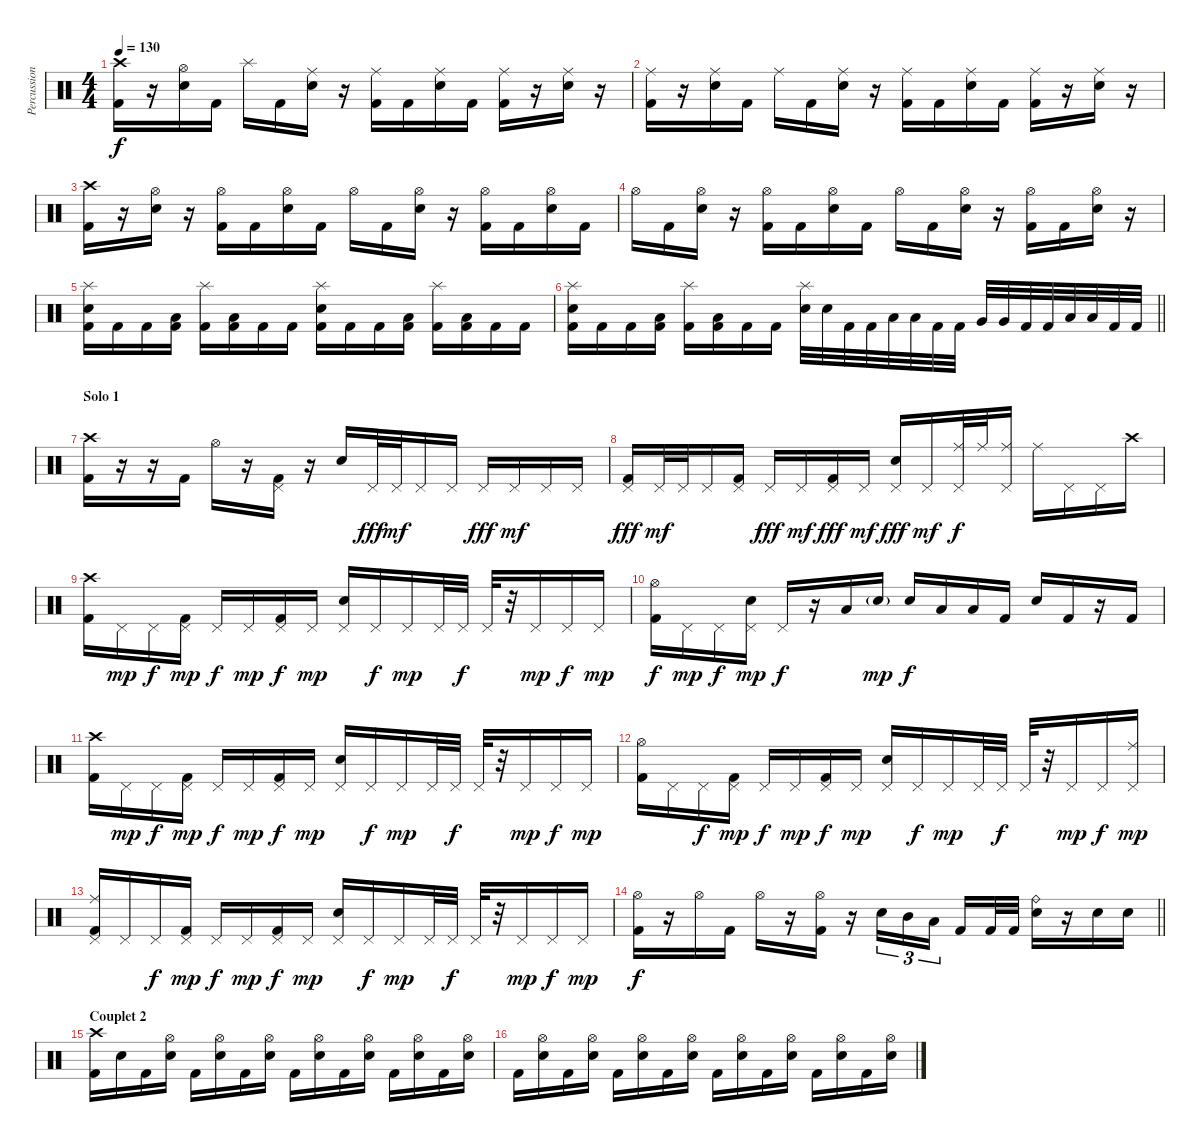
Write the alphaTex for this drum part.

\track ("Percussions" "Percussion") {instrument percussion}
\staff {score}
\articulation defaults
\ts (4 4)
\tempo 130
\clef neutral
\ks c
("Crash high (hit)" "Kick (hit) 2").16{dy f} r.16 ("Hi-Hat (open)" "Electric Snare (hit)").16 "Kick (hit) 2".16 "Splash (hit)".16 "Kick (hit) 2".16 ("Ride (middle)" "Electric Snare (hit)").16 r.16 ("Ride (middle)" "Kick (hit) 2").16 "Kick (hit) 2".16 ("Ride (middle)" "Electric Snare (hit)").16 "Kick (hit) 2".16 ("Ride (middle)" "Kick (hit) 2").16 r.16 ("Ride (middle)" "Electric Snare (hit)").16 r.16 |
("Ride (middle)" "Kick (hit) 2").16 r.16 ("Ride (middle)" "Electric Snare (hit)").16 "Kick (hit) 2".16 "Ride (middle)".16 "Kick (hit) 2".16 ("Ride (middle)" "Electric Snare (hit)").16 r.16 ("Ride (middle)" "Kick (hit) 2").16 "Kick (hit) 2".16 ("Ride (middle)" "Electric Snare (hit)").16 "Kick (hit) 2".16 ("Ride (middle)" "Kick (hit) 2").16 r.16 ("Ride (middle)" "Electric Snare (hit)").16 r.16 |
("Crash high (hit)" "Kick (hit) 2").16 r.16 ("Hi-Hat (open)" "Electric Snare (hit)").16 r.16 ("Hi-Hat (open)" "Kick (hit) 2").16 "Kick (hit) 2".16 ("Hi-Hat (open)" "Electric Snare (hit)").16 "Kick (hit) 2".16 "Hi-Hat (open)".16 "Kick (hit) 2".16 ("Hi-Hat (open)" "Electric Snare (hit)").16 r.16 ("Hi-Hat (open)" "Kick (hit) 2").16 "Kick (hit) 2".16 ("Hi-Hat (open)" "Electric Snare (hit)").16 "Kick (hit) 2".16 |
"Hi-Hat (open)".16 "Kick (hit) 2".16 ("Hi-Hat (open)" "Electric Snare (hit)").16 r.16 ("Hi-Hat (open)" "Kick (hit) 2").16 "Kick (hit) 2".16 ("Hi-Hat (open)" "Electric Snare (hit)").16 "Kick (hit) 2".16 "Hi-Hat (open)".16 "Kick (hit) 2".16 ("Hi-Hat (open)" "Electric Snare (hit)").16 r.16 ("Hi-Hat (open)" "Kick (hit) 2").16 "Kick (hit) 2".16 ("Hi-Hat (open)" "Electric Snare (hit)").16 r.16 |
("Splash (hit)" "Electric Snare (hit)" "Kick (hit) 2").16 "Kick (hit) 2".16 "Kick (hit) 2".16 ("Low Tom (hit)" "Kick (hit) 2").16 ("Splash (hit)" "Kick (hit) 2").16 ("Low Tom (hit)" "Kick (hit) 2").16 "Kick (hit) 2".16 "Kick (hit) 2".16 ("Splash (hit)" "Electric Snare (hit)" "Kick (hit) 2").16 "Kick (hit) 2".16 "Kick (hit) 2".16 ("Low Tom (hit)" "Kick (hit) 2").16 ("Splash (hit)" "Kick (hit) 2").16 ("Low Tom (hit)" "Kick (hit) 2").16 "Kick (hit) 2".16 "Kick (hit) 2".16 |
\barLineRight lightlight
("Splash (hit)" "Electric Snare (hit)" "Kick (hit) 2").16 "Kick (hit) 2".16 "Kick (hit) 2".16 ("Low Tom (hit)" "Kick (hit) 2").16 ("Splash (hit)" "Kick (hit) 2").16 ("Low Tom (hit)" "Kick (hit) 2").16 "Kick (hit) 2".16 "Kick (hit) 2".16 ("Splash (hit)" "Electric Snare (hit)").32 "Electric Snare (hit)".32 "Kick (hit) 2".32 "Kick (hit) 2".32 "Low Tom (hit)".32 "Low Tom (hit)".32 "Kick (hit) 2".32 "Kick (hit) 2".32 "Very Low Tom (hit)".32 "Very Low Tom (hit)".32 "Kick (hit) 2".32 "Kick (hit) 2".32 "Low Floor Tom (hit)".32 "Low Floor Tom (hit)".32 "Kick (hit) 2".32 "Kick (hit) 2".32 |
\section ("" "Solo 1")
("Crash high (hit)" "Kick (hit) 2").16 r.16 r.16 "Kick (hit) 2".16 "Hi-Hat (open)".16 r.16 ("Pedal Hi-Hat (hit)" "Kick (hit) 2").16 r.16 "Electric Snare (hit)".16 "Pedal Hi-Hat (hit)".32{dy fff} "Pedal Hi-Hat (hit)".32{dy mf} "Pedal Hi-Hat (hit)".16 "Pedal Hi-Hat (hit)".16 "Pedal Hi-Hat (hit)".16{dy fff} "Pedal Hi-Hat (hit)".16{dy mf} "Pedal Hi-Hat (hit)".16 "Pedal Hi-Hat (hit)".16 |
("Pedal Hi-Hat (hit)" "Kick (hit) 2").16{dy fff} "Pedal Hi-Hat (hit)".32{dy mf} "Pedal Hi-Hat (hit)".32 "Pedal Hi-Hat (hit)".16 ("Pedal Hi-Hat (hit)" "Kick (hit) 2").16 "Pedal Hi-Hat (hit)".16{dy fff} "Pedal Hi-Hat (hit)".16{dy mf} ("Pedal Hi-Hat (hit)" "Kick (hit) 2").16{dy fff} "Pedal Hi-Hat (hit)".16{dy mf} ("Pedal Hi-Hat (hit)" "Electric Snare (hit)").16{dy fff} "Pedal Hi-Hat (hit)".16{dy mf} ("Ride (middle)" "Pedal Hi-Hat (hit)").32{dy f} "Ride (middle)".32 ("Ride (middle)" "Pedal Hi-Hat (hit)").16 "Ride (middle)".16 "Pedal Hi-Hat (hit)".16 "Pedal Hi-Hat (hit)".16 "Crash high (hit)".16 |
("Crash high (hit)" "Kick (hit) 2").16 "Pedal Hi-Hat (hit)".16{dy mp} "Pedal Hi-Hat (hit)".16{dy f} ("Pedal Hi-Hat (hit)" "Kick (hit) 2").16{dy mp} "Pedal Hi-Hat (hit)".16{dy f} "Pedal Hi-Hat (hit)".16{dy mp} ("Pedal Hi-Hat (hit)" "Kick (hit) 2").16{dy f} "Pedal Hi-Hat (hit)".16{dy mp} ("Pedal Hi-Hat (hit)" "Electric Snare (hit)").16 "Pedal Hi-Hat (hit)".16{dy f} "Pedal Hi-Hat (hit)".16{dy mp} "Pedal Hi-Hat (hit)".32 "Pedal Hi-Hat (hit)".32{dy f} "Pedal Hi-Hat (hit)".32 r.32 "Pedal Hi-Hat (hit)".16{dy mp} "Pedal Hi-Hat (hit)".16{dy f} "Pedal Hi-Hat (hit)".16{dy mp} |
("Hi-Hat (open)" "Kick (hit) 2").16{dy f} "Pedal Hi-Hat (hit)".16{dy mp} "Pedal Hi-Hat (hit)".16{dy f} ("Pedal Hi-Hat (hit)" "Electric Snare (hit)").16{dy mp} "Pedal Hi-Hat (hit)".16{dy f} r.16 "Low Tom (hit)".16 "Electric Snare (hit)"{g}.16{dy mp} "Electric Snare (hit)".16{dy f} "Low Tom (hit)".16 "Low Floor Tom (hit)".16 "Kick (hit) 2".16 "Electric Snare (hit)".16 "Kick (hit) 2".16 r.16 "Kick (hit) 2".16 |
("Crash high (hit)" "Kick (hit) 2").16 "Pedal Hi-Hat (hit)".16{dy mp} "Pedal Hi-Hat (hit)".16{dy f} ("Pedal Hi-Hat (hit)" "Kick (hit) 2").16{dy mp} "Pedal Hi-Hat (hit)".16{dy f} "Pedal Hi-Hat (hit)".16{dy mp} ("Pedal Hi-Hat (hit)" "Kick (hit) 2").16{dy f} "Pedal Hi-Hat (hit)".16{dy mp} ("Pedal Hi-Hat (hit)" "Electric Snare (hit)").16 "Pedal Hi-Hat (hit)".16{dy f} "Pedal Hi-Hat (hit)".16{dy mp} "Pedal Hi-Hat (hit)".32 "Pedal Hi-Hat (hit)".32{dy f} "Pedal Hi-Hat (hit)".32 r.32 "Pedal Hi-Hat (hit)".16{dy mp} "Pedal Hi-Hat (hit)".16{dy f} "Pedal Hi-Hat (hit)".16{dy mp} |
("Hi-Hat (open)" "Kick (hit) 2").16 "Pedal Hi-Hat (hit)".16 "Pedal Hi-Hat (hit)".16{dy f} ("Pedal Hi-Hat (hit)" "Kick (hit) 2").16{dy mp} "Pedal Hi-Hat (hit)".16{dy f} "Pedal Hi-Hat (hit)".16{dy mp} ("Pedal Hi-Hat (hit)" "Kick (hit) 2").16{dy f} "Pedal Hi-Hat (hit)".16{dy mp} ("Pedal Hi-Hat (hit)" "Electric Snare (hit)").16 "Pedal Hi-Hat (hit)".16{dy f} "Pedal Hi-Hat (hit)".16{dy mp} "Pedal Hi-Hat (hit)".32 "Pedal Hi-Hat (hit)".32{dy f} "Pedal Hi-Hat (hit)".32 r.32 "Pedal Hi-Hat (hit)".16{dy mp} "Pedal Hi-Hat (hit)".16{dy f} ("Ride (middle)" "Pedal Hi-Hat (hit)").16{dy mp} |
("Ride (middle)" "Pedal Hi-Hat (hit)" "Kick (hit) 2").16 "Pedal Hi-Hat (hit)".16 "Pedal Hi-Hat (hit)".16{dy f} ("Pedal Hi-Hat (hit)" "Kick (hit) 2").16{dy mp} "Pedal Hi-Hat (hit)".16{dy f} "Pedal Hi-Hat (hit)".16{dy mp} ("Pedal Hi-Hat (hit)" "Kick (hit) 2").16{dy f} "Pedal Hi-Hat (hit)".16{dy mp} ("Pedal Hi-Hat (hit)" "Electric Snare (hit)").16 "Pedal Hi-Hat (hit)".16{dy f} "Pedal Hi-Hat (hit)".16{dy mp} "Pedal Hi-Hat (hit)".32 "Pedal Hi-Hat (hit)".32{dy f} "Pedal Hi-Hat (hit)".32 r.32 "Pedal Hi-Hat (hit)".16{dy mp} "Pedal Hi-Hat (hit)".16{dy f} "Pedal Hi-Hat (hit)".16{dy mp} |
\barLineRight lightlight
("Hi-Hat (open)" "Kick (hit) 2").16{dy f} r.16 "Hi-Hat (open)".16 "Kick (hit) 2".16 "Hi-Hat (open)".16 r.16 ("Hi-Hat (open)" "Kick (hit) 2").16 r.16 "Electric Snare (hit)".16{tu (3 2)} "Mid Tom (hit)".16{tu (3 2)} "Low Tom (hit)".16{tu (3 2) beam splitsecondary} "Kick (hit) 2".16 "Kick (hit) 2".32 "Kick (hit) 2".32 ("Ride (bell)" "Electric Snare (hit)").16 r.16 "Electric Snare (hit)".16 "Electric Snare (hit)".16 |
\section ("" "Couplet 2")
("Crash high (hit)" "Kick (hit) 2").16 "Electric Snare (hit)".16 "Kick (hit) 2".16 ("Hi-Hat (open)" "Electric Snare (hit)").16 "Kick (hit) 2".16 ("Hi-Hat (open)" "Electric Snare (hit)").16 "Kick (hit) 2".16 ("Hi-Hat (open)" "Electric Snare (hit)").16 "Kick (hit) 2".16 ("Hi-Hat (open)" "Electric Snare (hit)").16 "Kick (hit) 2".16 ("Hi-Hat (open)" "Electric Snare (hit)").16 "Kick (hit) 2".16 ("Hi-Hat (open)" "Electric Snare (hit)").16 "Kick (hit) 2".16 ("Hi-Hat (open)" "Electric Snare (hit)").16 |
"Kick (hit) 2".16 ("Hi-Hat (open)" "Electric Snare (hit)").16 "Kick (hit) 2".16 ("Hi-Hat (open)" "Electric Snare (hit)").16 "Kick (hit) 2".16 ("Hi-Hat (open)" "Electric Snare (hit)").16 "Kick (hit) 2".16 ("Hi-Hat (open)" "Electric Snare (hit)").16 "Kick (hit) 2".16 ("Hi-Hat (open)" "Electric Snare (hit)").16 "Kick (hit) 2".16 ("Hi-Hat (open)" "Electric Snare (hit)").16 "Kick (hit) 2".16 ("Hi-Hat (open)" "Electric Snare (hit)").16 "Kick (hit) 2".16 ("Hi-Hat (open)" "Electric Snare (hit)").16
